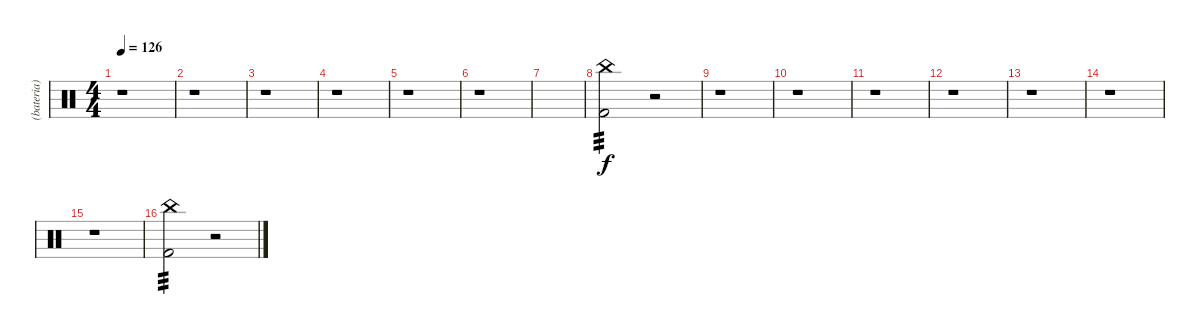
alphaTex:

\track ("(bateria)" "(bateria)") {instrument percussion}
\staff {score}
\articulation defaults
\ts (4 4)
\tempo 126
\clef neutral
\ks c
r.1{dy f} |
r.1 |
r.1 |
r.1 |
r.1 |
r.1 |
|
("Kick (hit) 2" "China (hit)").2{tp 3 volume 0} r.2{volume 13} |
r.1 |
r.1 |
r.1 |
r.1 |
r.1 |
r.1 |
r.1 |
("Kick (hit) 2" "China (hit)").2{tp 3 volume 0} r.2{volume 13}
